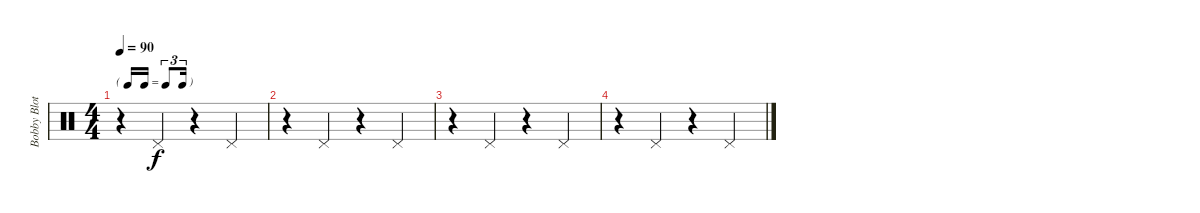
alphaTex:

\track ("Bobby Blotzer - Drums" "Bobby Blot") {instrument percussion}
\staff {score}
\articulation defaults
\ts (4 4)
\tf triplet16th
\tempo 90
\clef neutral
\ks c
r.4{dy f} "Pedal Hi-Hat (hit)".4 r.4 "Pedal Hi-Hat (hit)".4 |
r.4 "Pedal Hi-Hat (hit)".4 r.4 "Pedal Hi-Hat (hit)".4 |
r.4 "Pedal Hi-Hat (hit)".4 r.4 "Pedal Hi-Hat (hit)".4 |
r.4 "Pedal Hi-Hat (hit)".4 r.4 "Pedal Hi-Hat (hit)".4
